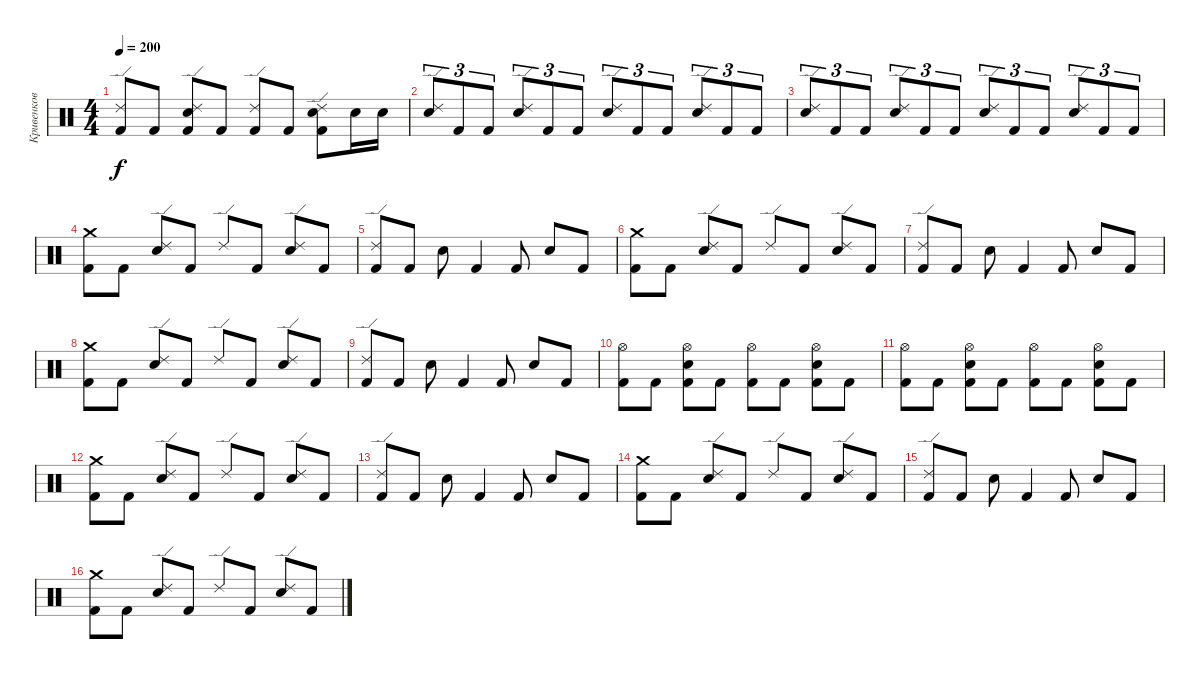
\track ("Кривенков" "Кривенков") {instrument percussion}
\staff {score}
\articulation defaults
\ts (4 4)
\tempo 200
\clef neutral
\ks c
("Ride (edge) 2" "Kick (hit) 2").8{dy f} "Kick (hit) 2".8 ("Ride (edge) 2" "Electric Snare (hit)" "Kick (hit) 2").8 "Kick (hit) 2".8 ("Ride (edge) 2" "Kick (hit) 2").8 "Kick (hit) 2".8 ("Ride (edge) 2" "Electric Snare (hit)" "Kick (hit) 2").8 "Electric Snare (hit)".16 "Electric Snare (hit)".16 |
("Ride (edge) 2" "Electric Snare (hit)").8{tu (3 2)} "Kick (hit) 2".8{tu (3 2)} "Kick (hit) 2".8{tu (3 2)} ("Ride (edge) 2" "Electric Snare (hit)").8{tu (3 2)} "Kick (hit) 2".8{tu (3 2)} "Kick (hit) 2".8{tu (3 2)} ("Ride (edge) 2" "Electric Snare (hit)").8{tu (3 2)} "Kick (hit) 2".8{tu (3 2)} "Kick (hit) 2".8{tu (3 2)} ("Ride (edge) 2" "Electric Snare (hit)").8{tu (3 2)} "Kick (hit) 2".8{tu (3 2)} "Kick (hit) 2".8{tu (3 2)} |
("Ride (edge) 2" "Electric Snare (hit)").8{tu (3 2)} "Kick (hit) 2".8{tu (3 2)} "Kick (hit) 2".8{tu (3 2)} ("Ride (edge) 2" "Electric Snare (hit)").8{tu (3 2)} "Kick (hit) 2".8{tu (3 2)} "Kick (hit) 2".8{tu (3 2)} ("Ride (edge) 2" "Electric Snare (hit)").8{tu (3 2)} "Kick (hit) 2".8{tu (3 2)} "Kick (hit) 2".8{tu (3 2)} ("Ride (edge) 2" "Electric Snare (hit)").8{tu (3 2)} "Kick (hit) 2".8{tu (3 2)} "Kick (hit) 2".8{tu (3 2)} |
("Crash medium (hit)" "Kick (hit) 2").8 "Kick (hit) 2".8 ("Ride (edge) 2" "Electric Snare (hit)").8 "Kick (hit) 2".8 "Ride (edge) 2".8 "Kick (hit) 2".8 ("Ride (edge) 2" "Electric Snare (hit)").8 "Kick (hit) 2".8 |
("Ride (edge) 2" "Kick (hit) 2").8 "Kick (hit) 2".8 "Electric Snare (hit)".8 "Kick (hit) 2".4 "Kick (hit) 2".8 "Electric Snare (hit)".8 "Kick (hit) 2".8 |
("Crash medium (hit)" "Kick (hit) 2").8 "Kick (hit) 2".8 ("Ride (edge) 2" "Electric Snare (hit)").8 "Kick (hit) 2".8 "Ride (edge) 2".8 "Kick (hit) 2".8 ("Ride (edge) 2" "Electric Snare (hit)").8 "Kick (hit) 2".8 |
("Ride (edge) 2" "Kick (hit) 2").8 "Kick (hit) 2".8 "Electric Snare (hit)".8 "Kick (hit) 2".4 "Kick (hit) 2".8 "Electric Snare (hit)".8 "Kick (hit) 2".8 |
("Crash medium (hit)" "Kick (hit) 2").8 "Kick (hit) 2".8 ("Ride (edge) 2" "Electric Snare (hit)").8 "Kick (hit) 2".8 "Ride (edge) 2".8 "Kick (hit) 2".8 ("Ride (edge) 2" "Electric Snare (hit)").8 "Kick (hit) 2".8 |
("Ride (edge) 2" "Kick (hit) 2").8 "Kick (hit) 2".8 "Electric Snare (hit)".8 "Kick (hit) 2".4 "Kick (hit) 2".8 "Electric Snare (hit)".8 "Kick (hit) 2".8 |
("Hi-Hat (open)" "Kick (hit) 2").8 "Kick (hit) 2".8 ("Electric Snare (hit)" "Hi-Hat (open)" "Kick (hit) 2").8 "Kick (hit) 2".8 ("Hi-Hat (open)" "Kick (hit) 2").8 "Kick (hit) 2".8 ("Electric Snare (hit)" "Hi-Hat (open)" "Kick (hit) 2").8 "Kick (hit) 2".8 |
("Hi-Hat (open)" "Kick (hit) 2").8 "Kick (hit) 2".8 ("Electric Snare (hit)" "Hi-Hat (open)" "Kick (hit) 2").8 "Kick (hit) 2".8 ("Hi-Hat (open)" "Kick (hit) 2").8 "Kick (hit) 2".8 ("Electric Snare (hit)" "Hi-Hat (open)" "Kick (hit) 2").8 "Kick (hit) 2".8 |
("Crash medium (hit)" "Kick (hit) 2").8 "Kick (hit) 2".8 ("Ride (edge) 2" "Electric Snare (hit)").8 "Kick (hit) 2".8 "Ride (edge) 2".8 "Kick (hit) 2".8 ("Ride (edge) 2" "Electric Snare (hit)").8 "Kick (hit) 2".8 |
("Ride (edge) 2" "Kick (hit) 2").8 "Kick (hit) 2".8 "Electric Snare (hit)".8 "Kick (hit) 2".4 "Kick (hit) 2".8 "Electric Snare (hit)".8 "Kick (hit) 2".8 |
("Crash medium (hit)" "Kick (hit) 2").8 "Kick (hit) 2".8 ("Ride (edge) 2" "Electric Snare (hit)").8 "Kick (hit) 2".8 "Ride (edge) 2".8 "Kick (hit) 2".8 ("Ride (edge) 2" "Electric Snare (hit)").8 "Kick (hit) 2".8 |
("Ride (edge) 2" "Kick (hit) 2").8 "Kick (hit) 2".8 "Electric Snare (hit)".8 "Kick (hit) 2".4 "Kick (hit) 2".8 "Electric Snare (hit)".8 "Kick (hit) 2".8 |
("Crash medium (hit)" "Kick (hit) 2").8 "Kick (hit) 2".8 ("Ride (edge) 2" "Electric Snare (hit)").8 "Kick (hit) 2".8 "Ride (edge) 2".8 "Kick (hit) 2".8 ("Ride (edge) 2" "Electric Snare (hit)").8 "Kick (hit) 2".8
